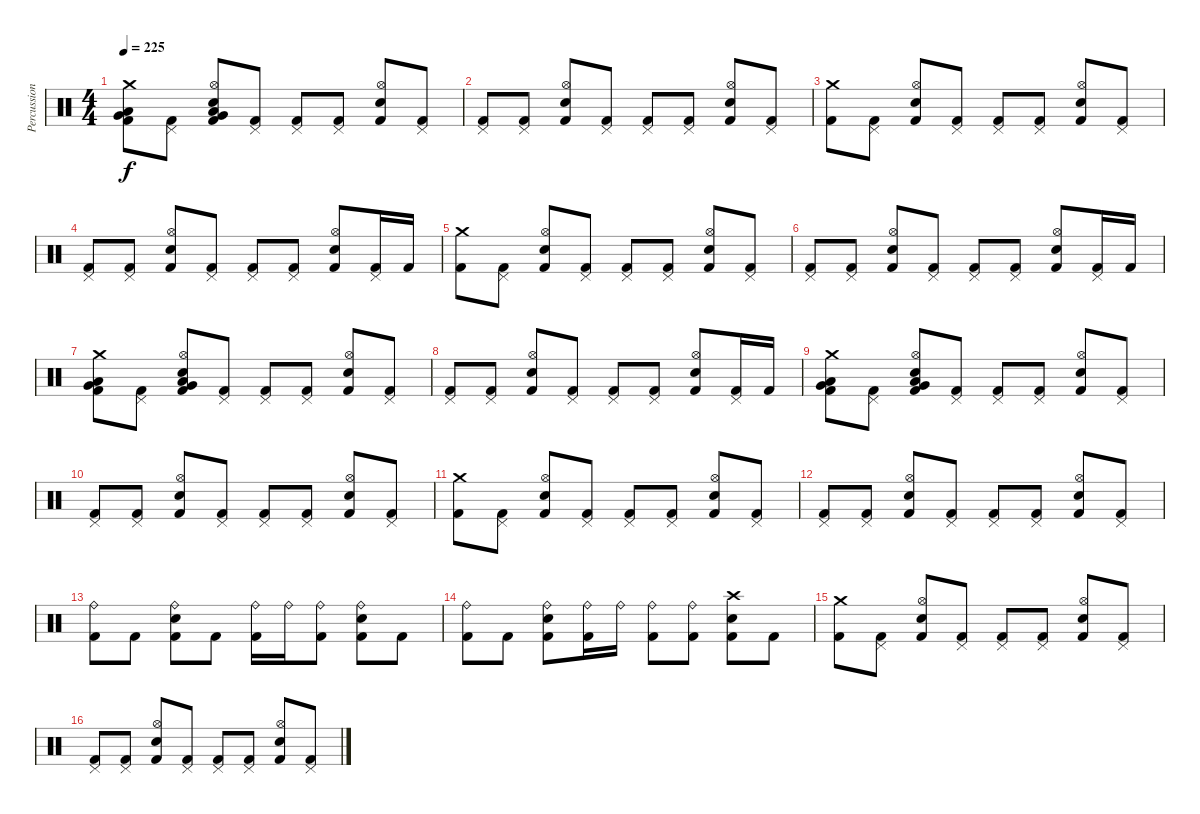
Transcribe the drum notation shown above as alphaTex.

\track ("Percussion" "Percussion") {instrument percussion}
\staff {score}
\articulation defaults
\ts (4 4)
\tempo 225
\clef neutral
\ks c
("Crash medium (hit)" "Very Low Tom (hit)" "Low Floor Tom (hit)" "Kick (hit) 2").8{dy f} ("Pedal Hi-Hat (hit)" "Kick (hit) 2").8 ("Hi-Hat (open)" "Electric Snare (hit)" "Very Low Tom (hit)" "Low Floor Tom (hit)" "Kick (hit) 2").8 ("Pedal Hi-Hat (hit)" "Kick (hit) 2").8 ("Pedal Hi-Hat (hit)" "Kick (hit) 2").8 ("Pedal Hi-Hat (hit)" "Kick (hit) 2").8 ("Hi-Hat (open)" "Electric Snare (hit)" "Kick (hit) 2").8 ("Pedal Hi-Hat (hit)" "Kick (hit) 2").8 |
("Pedal Hi-Hat (hit)" "Kick (hit) 2").8 ("Pedal Hi-Hat (hit)" "Kick (hit) 2").8 ("Hi-Hat (open)" "Electric Snare (hit)" "Kick (hit) 2").8 ("Pedal Hi-Hat (hit)" "Kick (hit) 2").8 ("Pedal Hi-Hat (hit)" "Kick (hit) 2").8 ("Pedal Hi-Hat (hit)" "Kick (hit) 2").8 ("Hi-Hat (open)" "Electric Snare (hit)" "Kick (hit) 2").8 ("Pedal Hi-Hat (hit)" "Kick (hit) 2").8 |
("Crash medium (hit)" "Kick (hit) 2").8 ("Pedal Hi-Hat (hit)" "Kick (hit) 2").8 ("Hi-Hat (open)" "Electric Snare (hit)" "Kick (hit) 2").8 ("Pedal Hi-Hat (hit)" "Kick (hit) 2").8 ("Pedal Hi-Hat (hit)" "Kick (hit) 2").8 ("Pedal Hi-Hat (hit)" "Kick (hit) 2").8 ("Hi-Hat (open)" "Electric Snare (hit)" "Kick (hit) 2").8 ("Pedal Hi-Hat (hit)" "Kick (hit) 2").8 |
("Pedal Hi-Hat (hit)" "Kick (hit) 2").8 ("Pedal Hi-Hat (hit)" "Kick (hit) 2").8 ("Hi-Hat (open)" "Electric Snare (hit)" "Kick (hit) 2").8 ("Pedal Hi-Hat (hit)" "Kick (hit) 2").8 ("Pedal Hi-Hat (hit)" "Kick (hit) 2").8 ("Pedal Hi-Hat (hit)" "Kick (hit) 2").8 ("Hi-Hat (open)" "Electric Snare (hit)" "Kick (hit) 2").8 ("Pedal Hi-Hat (hit)" "Kick (hit) 2").16 "Kick (hit) 2".16 |
("Crash medium (hit)" "Kick (hit) 2").8 ("Pedal Hi-Hat (hit)" "Kick (hit) 2").8 ("Hi-Hat (open)" "Electric Snare (hit)" "Kick (hit) 2").8 ("Pedal Hi-Hat (hit)" "Kick (hit) 2").8 ("Pedal Hi-Hat (hit)" "Kick (hit) 2").8 ("Pedal Hi-Hat (hit)" "Kick (hit) 2").8 ("Hi-Hat (open)" "Electric Snare (hit)" "Kick (hit) 2").8 ("Pedal Hi-Hat (hit)" "Kick (hit) 2").8 |
("Pedal Hi-Hat (hit)" "Kick (hit) 2").8 ("Pedal Hi-Hat (hit)" "Kick (hit) 2").8 ("Hi-Hat (open)" "Electric Snare (hit)" "Kick (hit) 2").8 ("Pedal Hi-Hat (hit)" "Kick (hit) 2").8 ("Pedal Hi-Hat (hit)" "Kick (hit) 2").8 ("Pedal Hi-Hat (hit)" "Kick (hit) 2").8 ("Hi-Hat (open)" "Electric Snare (hit)" "Kick (hit) 2").8 ("Pedal Hi-Hat (hit)" "Kick (hit) 2").16 "Kick (hit) 2".16 |
("Crash medium (hit)" "Very Low Tom (hit)" "Low Floor Tom (hit)" "Kick (hit) 2").8 ("Pedal Hi-Hat (hit)" "Kick (hit) 2").8 ("Hi-Hat (open)" "Electric Snare (hit)" "Very Low Tom (hit)" "Low Floor Tom (hit)" "Kick (hit) 2").8 ("Pedal Hi-Hat (hit)" "Kick (hit) 2").8 ("Pedal Hi-Hat (hit)" "Kick (hit) 2").8 ("Pedal Hi-Hat (hit)" "Kick (hit) 2").8 ("Hi-Hat (open)" "Electric Snare (hit)" "Kick (hit) 2").8 ("Pedal Hi-Hat (hit)" "Kick (hit) 2").8 |
("Pedal Hi-Hat (hit)" "Kick (hit) 2").8 ("Pedal Hi-Hat (hit)" "Kick (hit) 2").8 ("Hi-Hat (open)" "Electric Snare (hit)" "Kick (hit) 2").8 ("Pedal Hi-Hat (hit)" "Kick (hit) 2").8 ("Pedal Hi-Hat (hit)" "Kick (hit) 2").8 ("Pedal Hi-Hat (hit)" "Kick (hit) 2").8 ("Hi-Hat (open)" "Electric Snare (hit)" "Kick (hit) 2").8 ("Pedal Hi-Hat (hit)" "Kick (hit) 2").16 "Kick (hit) 2".16 |
("Crash medium (hit)" "Very Low Tom (hit)" "Low Floor Tom (hit)" "Kick (hit) 2").8 ("Pedal Hi-Hat (hit)" "Kick (hit) 2").8 ("Hi-Hat (open)" "Electric Snare (hit)" "Very Low Tom (hit)" "Low Floor Tom (hit)" "Kick (hit) 2").8 ("Pedal Hi-Hat (hit)" "Kick (hit) 2").8 ("Pedal Hi-Hat (hit)" "Kick (hit) 2").8 ("Pedal Hi-Hat (hit)" "Kick (hit) 2").8 ("Hi-Hat (open)" "Electric Snare (hit)" "Kick (hit) 2").8 ("Pedal Hi-Hat (hit)" "Kick (hit) 2").8 |
("Pedal Hi-Hat (hit)" "Kick (hit) 2").8 ("Pedal Hi-Hat (hit)" "Kick (hit) 2").8 ("Hi-Hat (open)" "Electric Snare (hit)" "Kick (hit) 2").8 ("Pedal Hi-Hat (hit)" "Kick (hit) 2").8 ("Pedal Hi-Hat (hit)" "Kick (hit) 2").8 ("Pedal Hi-Hat (hit)" "Kick (hit) 2").8 ("Hi-Hat (open)" "Electric Snare (hit)" "Kick (hit) 2").8 ("Pedal Hi-Hat (hit)" "Kick (hit) 2").8 |
("Crash medium (hit)" "Kick (hit) 2").8 ("Pedal Hi-Hat (hit)" "Kick (hit) 2").8 ("Hi-Hat (open)" "Electric Snare (hit)" "Kick (hit) 2").8 ("Pedal Hi-Hat (hit)" "Kick (hit) 2").8 ("Pedal Hi-Hat (hit)" "Kick (hit) 2").8 ("Pedal Hi-Hat (hit)" "Kick (hit) 2").8 ("Hi-Hat (open)" "Electric Snare (hit)" "Kick (hit) 2").8 ("Pedal Hi-Hat (hit)" "Kick (hit) 2").8 |
("Pedal Hi-Hat (hit)" "Kick (hit) 2").8 ("Pedal Hi-Hat (hit)" "Kick (hit) 2").8 ("Hi-Hat (open)" "Electric Snare (hit)" "Kick (hit) 2").8 ("Pedal Hi-Hat (hit)" "Kick (hit) 2").8 ("Pedal Hi-Hat (hit)" "Kick (hit) 2").8 ("Pedal Hi-Hat (hit)" "Kick (hit) 2").8 ("Hi-Hat (open)" "Electric Snare (hit)" "Kick (hit) 2").8 ("Pedal Hi-Hat (hit)" "Kick (hit) 2").8 |
("Ride (bell)" "Kick (hit) 2").8 "Kick (hit) 2".8 ("Ride (bell)" "Electric Snare (hit)" "Kick (hit) 2").8 "Kick (hit) 2".8 ("Ride (bell)" "Kick (hit) 2").16 "Ride (bell)".16 ("Ride (bell)" "Kick (hit) 2").8 ("Ride (bell)" "Electric Snare (hit)" "Kick (hit) 2").8 "Kick (hit) 2".8 |
("Ride (bell)" "Kick (hit) 2").8 "Kick (hit) 2".8 ("Ride (bell)" "Electric Snare (hit)" "Kick (hit) 2").8 ("Ride (bell)" "Kick (hit) 2").16 "Ride (bell)".16 ("Ride (bell)" "Kick (hit) 2").8 ("Ride (bell)" "Kick (hit) 2").8 ("Crash high (hit)" "Electric Snare (hit)" "Kick (hit) 2").8 "Kick (hit) 2".8 |
("Crash medium (hit)" "Kick (hit) 2").8 ("Pedal Hi-Hat (hit)" "Kick (hit) 2").8 ("Hi-Hat (open)" "Electric Snare (hit)" "Kick (hit) 2").8 ("Pedal Hi-Hat (hit)" "Kick (hit) 2").8 ("Pedal Hi-Hat (hit)" "Kick (hit) 2").8 ("Pedal Hi-Hat (hit)" "Kick (hit) 2").8 ("Hi-Hat (open)" "Electric Snare (hit)" "Kick (hit) 2").8 ("Pedal Hi-Hat (hit)" "Kick (hit) 2").8 |
("Pedal Hi-Hat (hit)" "Kick (hit) 2").8 ("Pedal Hi-Hat (hit)" "Kick (hit) 2").8 ("Hi-Hat (open)" "Electric Snare (hit)" "Kick (hit) 2").8 ("Pedal Hi-Hat (hit)" "Kick (hit) 2").8 ("Pedal Hi-Hat (hit)" "Kick (hit) 2").8 ("Pedal Hi-Hat (hit)" "Kick (hit) 2").8 ("Hi-Hat (open)" "Electric Snare (hit)" "Kick (hit) 2").8 ("Pedal Hi-Hat (hit)" "Kick (hit) 2").8
